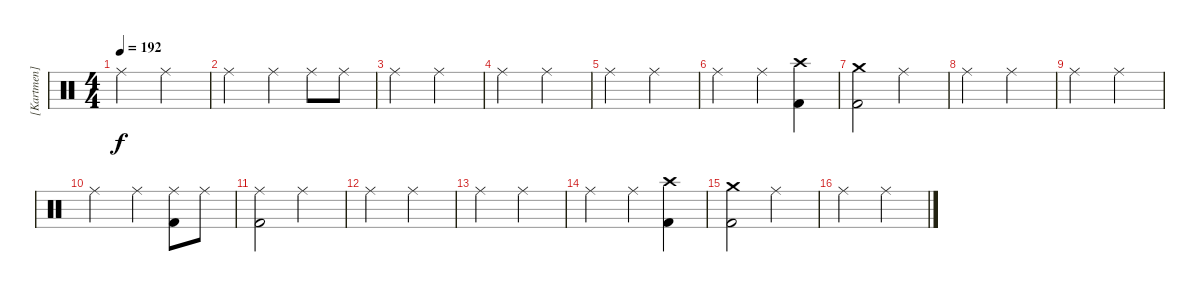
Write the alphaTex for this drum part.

\track ("[Kartmen] - Drums" "[Kartmen] ") {instrument percussion}
\staff {score}
\articulation defaults
\ts (4 4)
\tempo 192
\clef neutral
\ks c "Ride (middle)".2{dy f} "Ride (middle)".2
|
"Ride (middle)".2 "Ride (middle)".4 "Ride (middle)".8 "Ride (middle)".8 |
"Ride (middle)".2 "Ride (middle)".2 |
"Ride (middle)".2 "Ride (middle)".2 |
"Ride (middle)".2 "Ride (middle)".2 |
"Ride (middle)".2 "Ride (middle)".4 ("Crash high (hit)" "Kick (hit) 2").4 |
("Crash medium (hit)" "Kick (hit) 2").2 "Ride (middle)".2 |
"Ride (middle)".2 "Ride (middle)".2 |
"Ride (middle)".2 "Ride (middle)".2 |
"Ride (middle)".2 "Ride (middle)".4 ("Ride (middle)" "Kick (hit) 2").8 "Ride (middle)".8 |
("Ride (middle)" "Kick (hit) 2").2 "Ride (middle)".2 |
"Ride (middle)".2 "Ride (middle)".2 |
"Ride (middle)".2 "Ride (middle)".2 |
"Ride (middle)".2 "Ride (middle)".4 ("Crash high (hit)" "Kick (hit) 2").4 |
("Crash medium (hit)" "Kick (hit) 2").2 "Ride (middle)".2 |
"Ride (middle)".2 "Ride (middle)".2
